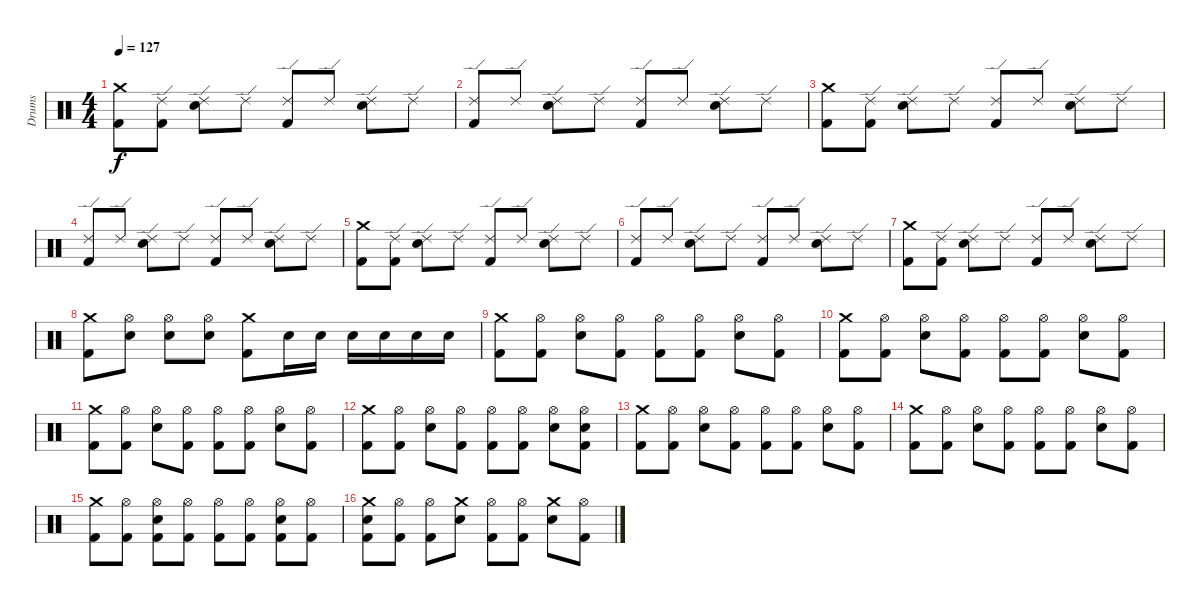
\track ("Drums" "Drums") {instrument percussion}
\staff {score}
\articulation defaults
\ts (4 4)
\tempo 127
\clef neutral
\ks c
("Kick (hit) 2" "Crash medium (hit)").8{dy f} ("Kick (hit) 2" "Ride (edge) 2").8 ("Electric Snare (hit)" "Ride (edge) 2").8 "Ride (edge) 2".8 ("Kick (hit) 2" "Ride (edge) 2").8 "Ride (edge) 2".8 ("Electric Snare (hit)" "Ride (edge) 2").8 "Ride (edge) 2".8 |
("Kick (hit) 2" "Ride (edge) 2").8 "Ride (edge) 2".8 ("Electric Snare (hit)" "Ride (edge) 2").8 "Ride (edge) 2".8 ("Kick (hit) 2" "Ride (edge) 2").8 "Ride (edge) 2".8 ("Electric Snare (hit)" "Ride (edge) 2").8 "Ride (edge) 2".8 |
("Kick (hit) 2" "Crash medium (hit)").8 ("Kick (hit) 2" "Ride (edge) 2").8 ("Electric Snare (hit)" "Ride (edge) 2").8 "Ride (edge) 2".8 ("Kick (hit) 2" "Ride (edge) 2").8 "Ride (edge) 2".8 ("Electric Snare (hit)" "Ride (edge) 2").8 "Ride (edge) 2".8 |
("Kick (hit) 2" "Ride (edge) 2").8 "Ride (edge) 2".8 ("Electric Snare (hit)" "Ride (edge) 2").8 "Ride (edge) 2".8 ("Kick (hit) 2" "Ride (edge) 2").8 "Ride (edge) 2".8 ("Electric Snare (hit)" "Ride (edge) 2").8 "Ride (edge) 2".8 |
("Kick (hit) 2" "Crash medium (hit)").8 ("Kick (hit) 2" "Ride (edge) 2").8 ("Electric Snare (hit)" "Ride (edge) 2").8 "Ride (edge) 2".8 ("Kick (hit) 2" "Ride (edge) 2").8 "Ride (edge) 2".8 ("Electric Snare (hit)" "Ride (edge) 2").8 "Ride (edge) 2".8 |
("Kick (hit) 2" "Ride (edge) 2").8 "Ride (edge) 2".8 ("Electric Snare (hit)" "Ride (edge) 2").8 "Ride (edge) 2".8 ("Kick (hit) 2" "Ride (edge) 2").8 "Ride (edge) 2".8 ("Electric Snare (hit)" "Ride (edge) 2").8 "Ride (edge) 2".8 |
("Kick (hit) 2" "Crash medium (hit)").8 ("Kick (hit) 2" "Ride (edge) 2").8 ("Electric Snare (hit)" "Ride (edge) 2").8 "Ride (edge) 2".8 ("Kick (hit) 2" "Ride (edge) 2").8 "Ride (edge) 2".8 ("Electric Snare (hit)" "Ride (edge) 2").8 "Ride (edge) 2".8 |
("Kick (hit) 2" "Crash medium (hit)").8 ("Electric Snare (hit)" "Hi-Hat (open)").8 ("Electric Snare (hit)" "Hi-Hat (open)").8 ("Electric Snare (hit)" "Hi-Hat (open)").8 ("Kick (hit) 2" "Crash medium (hit)").8 "Electric Snare (hit)".16 "Electric Snare (hit)".16 "Electric Snare (hit)".16 "Electric Snare (hit)".16 "Electric Snare (hit)".16 "Electric Snare (hit)".16 |
("Kick (hit) 2" "Crash medium (hit)").8 ("Kick (hit) 2" "Hi-Hat (open)").8 ("Electric Snare (hit)" "Hi-Hat (open)").8 ("Kick (hit) 2" "Hi-Hat (open)").8 ("Kick (hit) 2" "Hi-Hat (open)").8 ("Kick (hit) 2" "Hi-Hat (open)").8 ("Electric Snare (hit)" "Hi-Hat (open)").8 ("Kick (hit) 2" "Hi-Hat (open)").8 |
("Kick (hit) 2" "Crash medium (hit)").8 ("Kick (hit) 2" "Hi-Hat (open)").8 ("Electric Snare (hit)" "Hi-Hat (open)").8 ("Kick (hit) 2" "Hi-Hat (open)").8 ("Kick (hit) 2" "Hi-Hat (open)").8 ("Kick (hit) 2" "Hi-Hat (open)").8 ("Electric Snare (hit)" "Hi-Hat (open)").8 ("Kick (hit) 2" "Hi-Hat (open)").8 |
("Kick (hit) 2" "Crash medium (hit)").8 ("Kick (hit) 2" "Hi-Hat (open)").8 ("Electric Snare (hit)" "Hi-Hat (open)").8 ("Kick (hit) 2" "Hi-Hat (open)").8 ("Kick (hit) 2" "Hi-Hat (open)").8 ("Kick (hit) 2" "Hi-Hat (open)").8 ("Electric Snare (hit)" "Hi-Hat (open)").8 ("Kick (hit) 2" "Hi-Hat (open)").8 |
("Kick (hit) 2" "Crash medium (hit)").8 ("Kick (hit) 2" "Hi-Hat (open)").8 ("Electric Snare (hit)" "Hi-Hat (open)").8 ("Kick (hit) 2" "Hi-Hat (open)").8 ("Kick (hit) 2" "Hi-Hat (open)").8 ("Kick (hit) 2" "Hi-Hat (open)").8 ("Electric Snare (hit)" "Hi-Hat (open)").8 ("Kick (hit) 2" "Electric Snare (hit)" "Hi-Hat (open)").8 |
("Kick (hit) 2" "Crash medium (hit)").8 ("Kick (hit) 2" "Hi-Hat (open)").8 ("Electric Snare (hit)" "Hi-Hat (open)").8 ("Kick (hit) 2" "Hi-Hat (open)").8 ("Kick (hit) 2" "Hi-Hat (open)").8 ("Kick (hit) 2" "Hi-Hat (open)").8 ("Electric Snare (hit)" "Hi-Hat (open)").8 ("Kick (hit) 2" "Hi-Hat (open)").8 |
("Kick (hit) 2" "Crash medium (hit)").8 ("Kick (hit) 2" "Hi-Hat (open)").8 ("Electric Snare (hit)" "Hi-Hat (open)").8 ("Kick (hit) 2" "Hi-Hat (open)").8 ("Kick (hit) 2" "Hi-Hat (open)").8 ("Kick (hit) 2" "Hi-Hat (open)").8 ("Electric Snare (hit)" "Hi-Hat (open)").8 ("Kick (hit) 2" "Hi-Hat (open)").8 |
("Kick (hit) 2" "Crash medium (hit)").8 ("Kick (hit) 2" "Hi-Hat (open)").8 ("Kick (hit) 2" "Electric Snare (hit)" "Hi-Hat (open)").8 ("Kick (hit) 2" "Hi-Hat (open)").8 ("Kick (hit) 2" "Hi-Hat (open)").8 ("Kick (hit) 2" "Hi-Hat (open)").8 ("Kick (hit) 2" "Electric Snare (hit)" "Hi-Hat (open)").8 ("Kick (hit) 2" "Hi-Hat (open)").8 |
("Kick (hit) 2" "Electric Snare (hit)" "Crash medium (hit)").8 ("Kick (hit) 2" "Hi-Hat (open)").8 ("Kick (hit) 2" "Hi-Hat (open)").8 ("Electric Snare (hit)" "Crash medium (hit)").8 ("Kick (hit) 2" "Hi-Hat (open)").8 ("Kick (hit) 2" "Hi-Hat (open)").8 ("Electric Snare (hit)" "Crash medium (hit)").8 ("Kick (hit) 2" "Hi-Hat (open)").8
